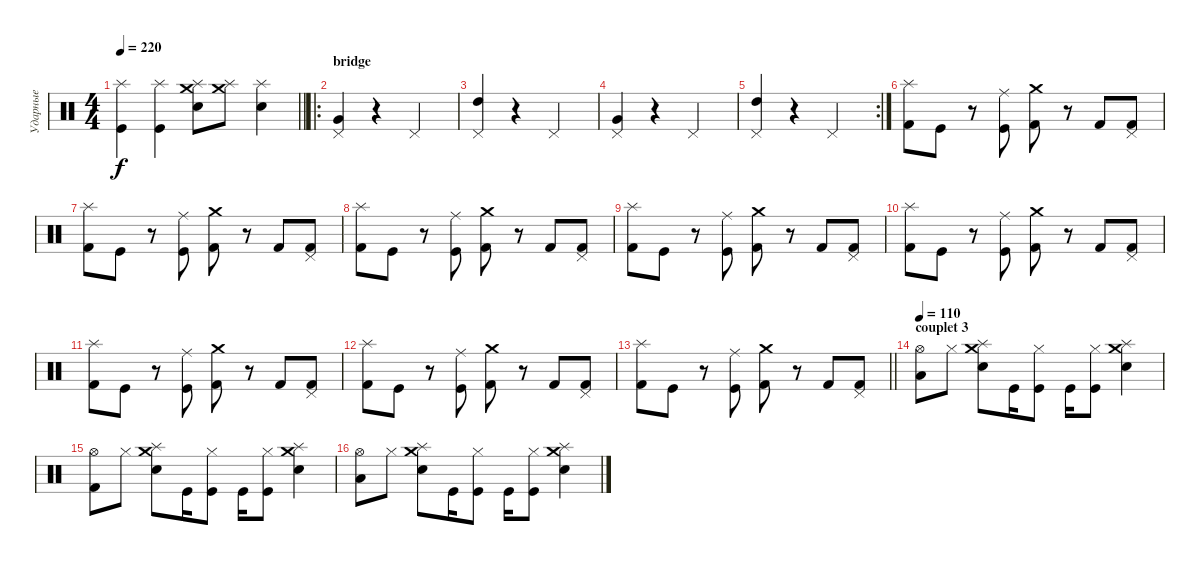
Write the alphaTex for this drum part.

\track ("Ударные" "Ударные") {instrument percussion}
\staff
\articulation defaults
\ts (4 4)
\tempo 220
\clef neutral
\barLineRight lightlight
\ks c
("Splash (hit)" "Kick (hit)").4{dy f} ("Splash (hit)" "Kick (hit)").4 ("Crash medium (hit)" "Splash (hit)" "Electric Snare (hit)").8 ("Crash medium (hit)" "Splash (hit)").8 ("Splash (hit)" "Electric Snare (hit)").4 |
\ro
\section ("" "bridge")
("Pedal Hi-Hat (hit)" "Very Low Tom (hit)").4 r.4 "Pedal Hi-Hat (hit)".2 |
("Pedal Hi-Hat (hit)" "High Tom (hit)").4 r.4 "Pedal Hi-Hat (hit)".2 |
("Pedal Hi-Hat (hit)" "Very Low Tom (hit)").4 r.4 "Pedal Hi-Hat (hit)".2 |
\rc 2
("Pedal Hi-Hat (hit)" "High Tom (hit)").4 r.4 "Pedal Hi-Hat (hit)".2 |
("Splash (hit)" "Kick (hit) 2").8 "Kick (hit)".8 r.8 ("Ride (middle)" "Kick (hit)").8 ("Crash medium (hit)" "Kick (hit) 2").8 r.8 "Kick (hit) 2".8 ("Pedal Hi-Hat (hit)" "Kick (hit) 2").8 |
("Splash (hit)" "Kick (hit) 2").8 "Kick (hit)".8 r.8 ("Ride (middle)" "Kick (hit)").8 ("Crash medium (hit)" "Kick (hit) 2").8 r.8 "Kick (hit) 2".8 ("Pedal Hi-Hat (hit)" "Kick (hit) 2").8 |
("Splash (hit)" "Kick (hit) 2").8 "Kick (hit)".8 r.8 ("Ride (middle)" "Kick (hit)").8 ("Crash medium (hit)" "Kick (hit) 2").8 r.8 "Kick (hit) 2".8 ("Pedal Hi-Hat (hit)" "Kick (hit) 2").8 |
("Splash (hit)" "Kick (hit) 2").8 "Kick (hit)".8 r.8 ("Ride (middle)" "Kick (hit)").8 ("Crash medium (hit)" "Kick (hit) 2").8 r.8 "Kick (hit) 2".8 ("Pedal Hi-Hat (hit)" "Kick (hit) 2").8 |
("Splash (hit)" "Kick (hit) 2").8 "Kick (hit)".8 r.8 ("Ride (middle)" "Kick (hit)").8 ("Crash medium (hit)" "Kick (hit) 2").8 r.8 "Kick (hit) 2".8 ("Pedal Hi-Hat (hit)" "Kick (hit) 2").8 |
("Splash (hit)" "Kick (hit) 2").8 "Kick (hit)".8 r.8 ("Ride (middle)" "Kick (hit)").8 ("Crash medium (hit)" "Kick (hit) 2").8 r.8 "Kick (hit) 2".8 ("Pedal Hi-Hat (hit)" "Kick (hit) 2").8 |
("Splash (hit)" "Kick (hit) 2").8 "Kick (hit)".8 r.8 ("Ride (middle)" "Kick (hit)").8 ("Crash medium (hit)" "Kick (hit) 2").8 r.8 "Kick (hit) 2".8 ("Pedal Hi-Hat (hit)" "Kick (hit) 2").8 |
\barLineRight lightlight
("Splash (hit)" "Kick (hit) 2").8 "Kick (hit)".8 r.8 ("Ride (middle)" "Kick (hit)").8 ("Crash medium (hit)" "Kick (hit) 2").8 r.8 "Kick (hit) 2".8 ("Pedal Hi-Hat (hit)" "Kick (hit) 2").8 |
\section ("" "couplet 3")
\tempo 110
("Hi-Hat (open)" "Low Tom (hit)").8 "Hi-Hat (closed)".8 ("Crash medium (hit)" "Splash (hit)" "Electric Snare (hit)").8 "Kick (hit)".16 ("Hi-Hat (closed)" "Kick (hit)").8 "Kick (hit)".16 ("Hi-Hat (closed)" "Kick (hit)").8 ("Crash medium (hit)" "Splash (hit)" "Electric Snare (hit)").4 |
("Hi-Hat (open)" "Kick (hit) 2").8 "Hi-Hat (closed)".8 ("Crash medium (hit)" "Splash (hit)" "Electric Snare (hit)").8 "Kick (hit)".16 ("Hi-Hat (closed)" "Kick (hit)").8 "Kick (hit)".16 ("Hi-Hat (closed)" "Kick (hit)").8 ("Crash medium (hit)" "Splash (hit)" "Electric Snare (hit)").4 |
("Hi-Hat (open)" "Low Tom (hit)").8 "Hi-Hat (closed)".8 ("Crash medium (hit)" "Splash (hit)" "Electric Snare (hit)").8 "Kick (hit)".16 ("Hi-Hat (closed)" "Kick (hit)").8 "Kick (hit)".16 ("Hi-Hat (closed)" "Kick (hit)").8 ("Crash medium (hit)" "Splash (hit)" "Electric Snare (hit)").4
